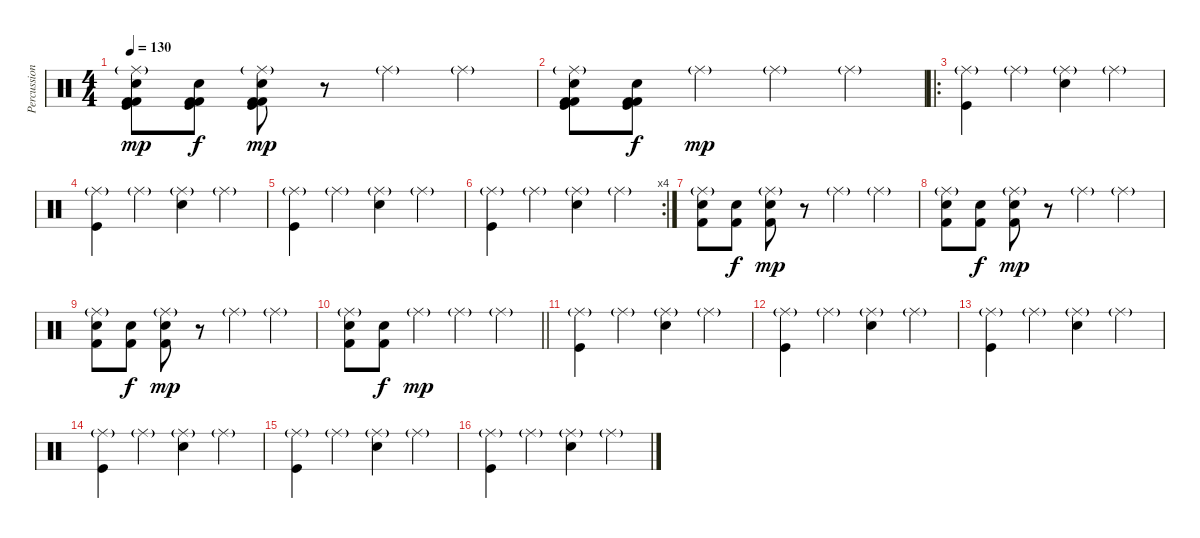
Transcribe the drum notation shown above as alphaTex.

\track ("Percussions" "Percussion") {instrument percussion}
\staff {score}
\articulation defaults
\ts (4 4)
\tempo 130
\clef neutral
\ks c
("Ride (middle)"{g} "Kick (hit)" "Kick (hit) 2" "Electric Snare (hit)" "Kick (hit) 2").8{dy mp} ("Kick (hit)" "Kick (hit) 2" "Electric Snare (hit)" "Kick (hit) 2").8{dy f} ("Ride (middle)"{g} "Kick (hit)" "Kick (hit) 2" "Electric Snare (hit)" "Kick (hit) 2").8{dy mp} r.8 "Ride (middle)"{g}.4 "Ride (middle)"{g}.4 |
("Ride (middle)"{g} "Kick (hit)" "Kick (hit) 2" "Electric Snare (hit)" "Kick (hit) 2").8 ("Kick (hit)" "Kick (hit) 2" "Electric Snare (hit)" "Kick (hit) 2").8{dy f} "Ride (middle)"{g}.4{dy mp} "Ride (middle)"{g}.4 "Ride (middle)"{g}.4 |
\ro
("Ride (middle)"{g} "Kick (hit)").4 "Ride (middle)"{g}.4 ("Ride (middle)"{g} "Electric Snare (hit)").4 "Ride (middle)"{g}.4 |
("Ride (middle)"{g} "Kick (hit)").4 "Ride (middle)"{g}.4 ("Ride (middle)"{g} "Electric Snare (hit)").4 "Ride (middle)"{g}.4 |
("Ride (middle)"{g} "Kick (hit)").4 "Ride (middle)"{g}.4 ("Ride (middle)"{g} "Electric Snare (hit)").4 "Ride (middle)"{g}.4 |
\rc 4
("Ride (middle)"{g} "Kick (hit)").4 "Ride (middle)"{g}.4 ("Ride (middle)"{g} "Electric Snare (hit)").4 "Ride (middle)"{g}.4 |
("Ride (middle)"{g} "Electric Snare (hit)" "Kick (hit) 2").8 ("Electric Snare (hit)" "Kick (hit) 2").8{dy f} ("Ride (middle)"{g} "Electric Snare (hit)" "Kick (hit) 2").8{dy mp} r.8 "Ride (middle)"{g}.4 "Ride (middle)"{g}.4 |
("Ride (middle)"{g} "Electric Snare (hit)" "Kick (hit) 2").8 ("Electric Snare (hit)" "Kick (hit) 2").8{dy f} ("Ride (middle)"{g} "Electric Snare (hit)" "Kick (hit) 2").8{dy mp} r.8 "Ride (middle)"{g}.4 "Ride (middle)"{g}.4 |
("Ride (middle)"{g} "Electric Snare (hit)" "Kick (hit) 2").8 ("Electric Snare (hit)" "Kick (hit) 2").8{dy f} ("Ride (middle)"{g} "Electric Snare (hit)" "Kick (hit) 2").8{dy mp} r.8 "Ride (middle)"{g}.4 "Ride (middle)"{g}.4 |
\barLineRight lightlight
("Ride (middle)"{g} "Electric Snare (hit)" "Kick (hit) 2").8 ("Electric Snare (hit)" "Kick (hit) 2").8{dy f} "Ride (middle)"{g}.4{dy mp} "Ride (middle)"{g}.4 "Ride (middle)"{g}.4 |
("Ride (middle)"{g} "Kick (hit)").4 "Ride (middle)"{g}.4 ("Ride (middle)"{g} "Electric Snare (hit)").4 "Ride (middle)"{g}.4 |
("Ride (middle)"{g} "Kick (hit)").4 "Ride (middle)"{g}.4 ("Ride (middle)"{g} "Electric Snare (hit)").4 "Ride (middle)"{g}.4 |
("Ride (middle)"{g} "Kick (hit)").4 "Ride (middle)"{g}.4 ("Ride (middle)"{g} "Electric Snare (hit)").4 "Ride (middle)"{g}.4 |
("Ride (middle)"{g} "Kick (hit)").4 "Ride (middle)"{g}.4 ("Ride (middle)"{g} "Electric Snare (hit)").4 "Ride (middle)"{g}.4 |
("Ride (middle)"{g} "Kick (hit)").4 "Ride (middle)"{g}.4 ("Ride (middle)"{g} "Electric Snare (hit)").4 "Ride (middle)"{g}.4 |
("Ride (middle)"{g} "Kick (hit)").4 "Ride (middle)"{g}.4 ("Ride (middle)"{g} "Electric Snare (hit)").4 "Ride (middle)"{g}.4
